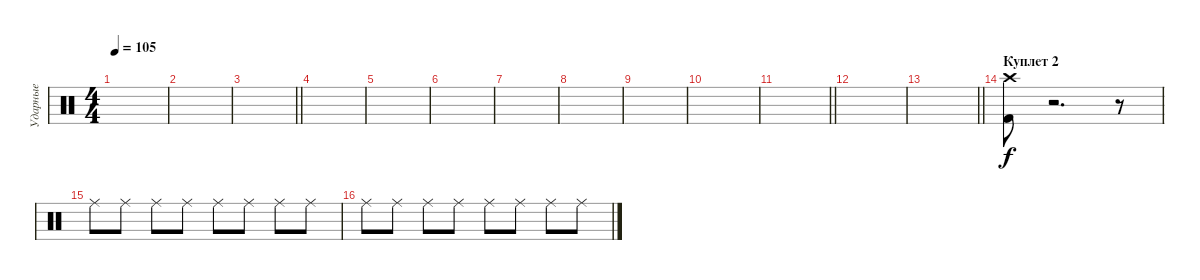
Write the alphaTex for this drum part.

\track ("Ударные" "Ударные") {solo instrument percussion}
\staff {score}
\articulation defaults
\ts (4 4)
\tempo 105
\clef neutral
\ks c
|
|
\barLineRight lightlight
|
|
|
|
|
|
|
|
\barLineRight lightlight
|
|
\barLineRight lightlight
|
\section ("" "Куплет 2")
("Kick (hit) 2" "Crash high (hit)").8 r.2{d} r.8 |
"Ride (middle)".8{dy f} "Ride (middle)".8 "Ride (middle)".8 "Ride (middle)".8 "Ride (middle)".8 "Ride (middle)".8 "Ride (middle)".8 "Ride (middle)".8 |
"Ride (middle)".8 "Ride (middle)".8 "Ride (middle)".8 "Ride (middle)".8 "Ride (middle)".8 "Ride (middle)".8 "Ride (middle)".8 "Ride (middle)".8
